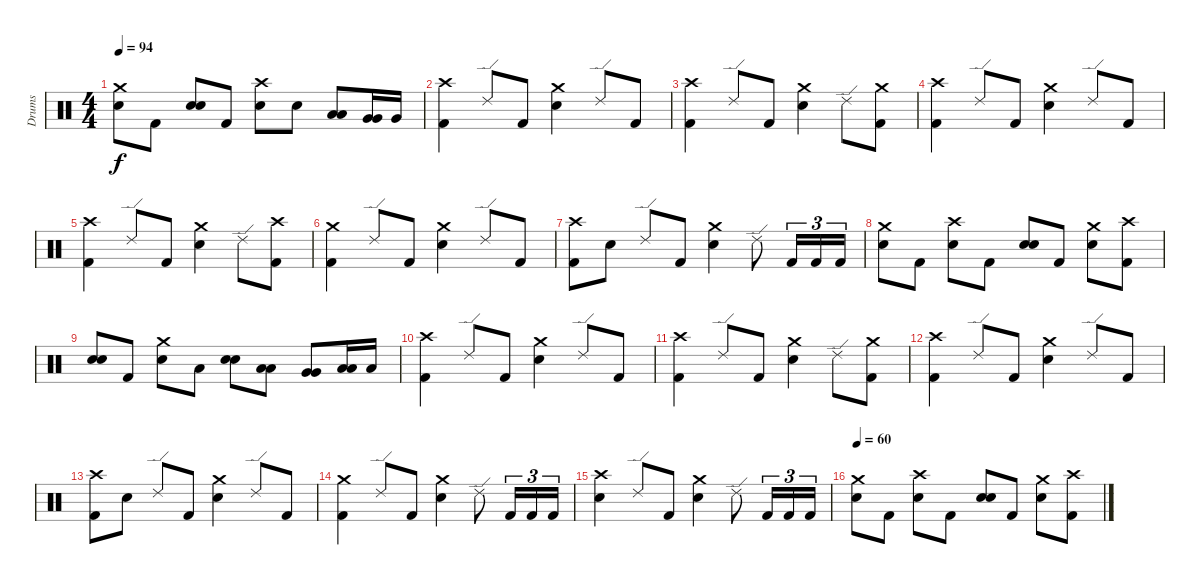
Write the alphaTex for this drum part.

\track ("Drums" "Drums") {instrument percussion}
\staff {score}
\articulation defaults
\ts (4 4)
\tempo 94
\clef neutral
\ks c
("Crash medium (hit)" "Electric Snare (hit)").8{dy f} "Kick (hit) 2".8 ("Electric Snare (hit)" "Electric Snare (hit)").8{bu 60} "Kick (hit) 2".8 ("Crash high (hit)" "Electric Snare (hit)").8 "Electric Snare (hit)".8 ("Low Tom (hit)" "Low Tom (hit)").8{bu 60} ("Very Low Tom (hit)" "Very Low Tom (hit)").16{bu 60} "Very Low Tom (hit)".16 |
("Crash high (hit)" "Kick (hit) 2").4 "Ride (edge) 2".8 "Kick (hit) 2".8 ("Crash medium (hit)" "Electric Snare (hit)").4 "Ride (edge) 2".8 "Kick (hit) 2".8 |
("Crash high (hit)" "Kick (hit) 2").4 "Ride (edge) 2".8 "Kick (hit) 2".8 ("Crash medium (hit)" "Electric Snare (hit)").4 "Ride (edge) 2".8 ("Crash medium (hit)" "Kick (hit) 2").8 |
("Crash high (hit)" "Kick (hit) 2").4 "Ride (edge) 2".8 "Kick (hit) 2".8 ("Crash medium (hit)" "Electric Snare (hit)").4 "Ride (edge) 2".8 "Kick (hit) 2".8 |
("Crash high (hit)" "Kick (hit) 2").4 "Ride (edge) 2".8 "Kick (hit) 2".8 ("Crash medium (hit)" "Electric Snare (hit)").4 "Ride (edge) 2".8 ("Crash high (hit)" "Kick (hit) 2").8 |
("Crash medium (hit)" "Kick (hit) 2").4 "Ride (edge) 2".8 "Kick (hit) 2".8 ("Crash medium (hit)" "Electric Snare (hit)").4 "Ride (edge) 2".8 "Kick (hit) 2".8 |
("Crash high (hit)" "Kick (hit) 2").8 "Electric Snare (hit)".8 "Ride (edge) 2".8 "Kick (hit) 2".8 ("Crash medium (hit)" "Electric Snare (hit)").4 "Ride (edge) 2".8 "Kick (hit) 2".16{tu (3 2)} "Kick (hit) 2".16{tu (3 2)} "Kick (hit) 2".16{tu (3 2)} |
("Crash medium (hit)" "Electric Snare (hit)").8 "Kick (hit) 2".8 ("Crash high (hit)" "Electric Snare (hit)").8 "Kick (hit) 2".8 ("Electric Snare (hit)" "Electric Snare (hit)").8{bu 60} "Kick (hit) 2".8 ("Crash medium (hit)" "Electric Snare (hit)").8 ("Crash high (hit)" "Kick (hit) 2").8 |
("Electric Snare (hit)" "Electric Snare (hit)").8{bu 60} "Kick (hit) 2".8 ("Crash medium (hit)" "Electric Snare (hit)").8 "Low Tom (hit)".8 ("Electric Snare (hit)" "Electric Snare (hit)").8{bu 60} ("Low Tom (hit)" "Low Tom (hit)").8{bu 60} ("Very Low Tom (hit)" "Very Low Tom (hit)").8{bu 60} ("Low Floor Tom (hit)" "Low Floor Tom (hit)").16{bu 60} "Low Floor Tom (hit)".16 |
("Crash high (hit)" "Kick (hit) 2").4 "Ride (edge) 2".8 "Kick (hit) 2".8 ("Crash medium (hit)" "Electric Snare (hit)").4 "Ride (edge) 2".8 "Kick (hit) 2".8 |
("Crash high (hit)" "Kick (hit) 2").4 "Ride (edge) 2".8 "Kick (hit) 2".8 ("Crash medium (hit)" "Electric Snare (hit)").4 "Ride (edge) 2".8 ("Crash medium (hit)" "Kick (hit) 2").8 |
("Crash high (hit)" "Kick (hit) 2").4 "Ride (edge) 2".8 "Kick (hit) 2".8 ("Crash medium (hit)" "Electric Snare (hit)").4 "Ride (edge) 2".8 "Kick (hit) 2".8 |
("Crash high (hit)" "Kick (hit) 2").8 "Electric Snare (hit)".8 "Ride (edge) 2".8 "Kick (hit) 2".8 ("Crash medium (hit)" "Electric Snare (hit)").4 "Ride (edge) 2".8 "Kick (hit) 2".8 |
("Crash medium (hit)" "Kick (hit) 2").4 "Ride (edge) 2".8 "Kick (hit) 2".8 ("Crash medium (hit)" "Electric Snare (hit)").4 "Ride (edge) 2".8 "Kick (hit) 2".16{tu (3 2)} "Kick (hit) 2".16{tu (3 2)} "Kick (hit) 2".16{tu (3 2)} |
("Crash high (hit)" "Electric Snare (hit)").4 "Ride (edge) 2".8 "Kick (hit) 2".8 ("Crash medium (hit)" "Electric Snare (hit)").4 "Ride (edge) 2".8 "Kick (hit) 2".16{tu (3 2)} "Kick (hit) 2".16{tu (3 2)} "Kick (hit) 2".16{tu (3 2)} |
\tempo 60
("Crash medium (hit)" "Electric Snare (hit)").8 "Kick (hit) 2".8 ("Crash high (hit)" "Electric Snare (hit)").8 "Kick (hit) 2".8 ("Electric Snare (hit)" "Electric Snare (hit)").8{bu 60} "Kick (hit) 2".8 ("Crash medium (hit)" "Electric Snare (hit)").8 ("Crash high (hit)" "Kick (hit) 2").8
